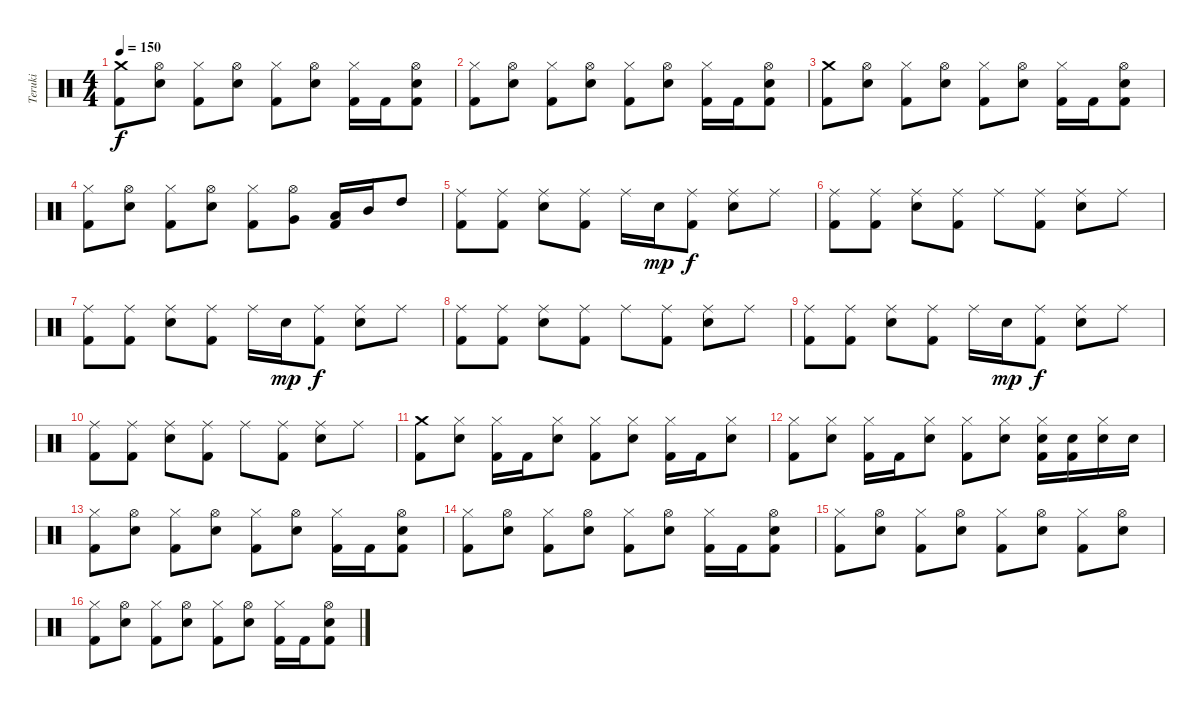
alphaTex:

\track ("Teruki" "Teruki") {instrument percussion}
\staff {score}
\articulation defaults
\ts (4 4)
\tempo 150
\clef neutral
\ks c
("Crash medium (hit)" "Kick (hit) 2").8{dy f} ("Hi-Hat (open)" "Electric Snare (hit)").8 ("Hi-Hat (closed)" "Kick (hit) 2").8 ("Hi-Hat (open)" "Electric Snare (hit)").8 ("Hi-Hat (closed)" "Kick (hit) 2").8 ("Hi-Hat (open)" "Electric Snare (hit)").8 ("Hi-Hat (closed)" "Kick (hit) 2").16 "Kick (hit) 2".16 ("Hi-Hat (open)" "Electric Snare (hit)" "Kick (hit) 2").8 |
("Hi-Hat (closed)" "Kick (hit) 2").8 ("Hi-Hat (open)" "Electric Snare (hit)").8 ("Hi-Hat (closed)" "Kick (hit) 2").8 ("Hi-Hat (open)" "Electric Snare (hit)").8 ("Hi-Hat (closed)" "Kick (hit) 2").8 ("Hi-Hat (open)" "Electric Snare (hit)").8 ("Hi-Hat (closed)" "Kick (hit) 2").16 "Kick (hit) 2".16 ("Hi-Hat (open)" "Electric Snare (hit)" "Kick (hit) 2").8 |
("Crash medium (hit)" "Kick (hit) 2").8 ("Hi-Hat (open)" "Electric Snare (hit)").8 ("Hi-Hat (closed)" "Kick (hit) 2").8 ("Hi-Hat (open)" "Electric Snare (hit)").8 ("Hi-Hat (closed)" "Kick (hit) 2").8 ("Hi-Hat (open)" "Electric Snare (hit)").8 ("Hi-Hat (closed)" "Kick (hit) 2").16 "Kick (hit) 2".16 ("Hi-Hat (open)" "Electric Snare (hit)" "Kick (hit) 2").8 |
("Hi-Hat (closed)" "Kick (hit) 2").8 ("Hi-Hat (open)" "Electric Snare (hit)").8 ("Hi-Hat (closed)" "Kick (hit) 2").8 ("Hi-Hat (open)" "Electric Snare (hit)").8 ("Hi-Hat (closed)" "Kick (hit) 2").8 ("Hi-Hat (open)" "Very Low Tom (hit)").8 ("Low Tom (hit)" "Kick (hit) 2").16 "Mid Tom (hit)".16 "High Tom (hit)".8 |
("Ride (middle)" "Kick (hit) 2").8 ("Ride (middle)" "Kick (hit) 2").8 ("Ride (middle)" "Electric Snare (hit)").8 ("Ride (middle)" "Kick (hit) 2").8 "Ride (middle)".16 "Electric Snare (hit)".16{dy mp} ("Ride (middle)" "Kick (hit) 2").8{dy f} ("Ride (middle)" "Electric Snare (hit)").8 "Ride (middle)".8 |
("Ride (middle)" "Kick (hit) 2").8 ("Ride (middle)" "Kick (hit) 2").8 ("Ride (middle)" "Electric Snare (hit)").8 ("Ride (middle)" "Kick (hit) 2").8 "Ride (middle)".8 ("Ride (middle)" "Kick (hit) 2").8 ("Ride (middle)" "Electric Snare (hit)").8 "Ride (middle)".8 |
("Ride (middle)" "Kick (hit) 2").8 ("Ride (middle)" "Kick (hit) 2").8 ("Ride (middle)" "Electric Snare (hit)").8 ("Ride (middle)" "Kick (hit) 2").8 "Ride (middle)".16 "Electric Snare (hit)".16{dy mp} ("Ride (middle)" "Kick (hit) 2").8{dy f} ("Ride (middle)" "Electric Snare (hit)").8 "Ride (middle)".8 |
("Ride (middle)" "Kick (hit) 2").8 ("Ride (middle)" "Kick (hit) 2").8 ("Ride (middle)" "Electric Snare (hit)").8 ("Ride (middle)" "Kick (hit) 2").8 "Ride (middle)".8 ("Ride (middle)" "Kick (hit) 2").8 ("Ride (middle)" "Electric Snare (hit)").8 "Ride (middle)".8 |
("Ride (middle)" "Kick (hit) 2").8 ("Ride (middle)" "Kick (hit) 2").8 ("Ride (middle)" "Electric Snare (hit)").8 ("Ride (middle)" "Kick (hit) 2").8 "Ride (middle)".16 "Electric Snare (hit)".16{dy mp} ("Ride (middle)" "Kick (hit) 2").8{dy f} ("Ride (middle)" "Electric Snare (hit)").8 "Ride (middle)".8 |
("Ride (middle)" "Kick (hit) 2").8 ("Ride (middle)" "Kick (hit) 2").8 ("Ride (middle)" "Electric Snare (hit)").8 ("Ride (middle)" "Kick (hit) 2").8 "Ride (middle)".8 ("Ride (middle)" "Kick (hit) 2").8 ("Ride (middle)" "Electric Snare (hit)").8 "Ride (middle)".8 |
("Crash medium (hit)" "Kick (hit) 2").8 ("Hi-Hat (closed)" "Electric Snare (hit)").8 ("Hi-Hat (closed)" "Kick (hit) 2").16 "Kick (hit) 2".16 ("Hi-Hat (closed)" "Electric Snare (hit)").8 ("Hi-Hat (closed)" "Kick (hit) 2").8 ("Hi-Hat (closed)" "Electric Snare (hit)").8 ("Hi-Hat (closed)" "Kick (hit) 2").16 "Kick (hit) 2".16 ("Hi-Hat (closed)" "Electric Snare (hit)").8 |
("Hi-Hat (closed)" "Kick (hit) 2").8 ("Hi-Hat (closed)" "Electric Snare (hit)").8 ("Hi-Hat (closed)" "Kick (hit) 2").16 "Kick (hit) 2".16 ("Hi-Hat (closed)" "Electric Snare (hit)").8 ("Hi-Hat (closed)" "Kick (hit) 2").8 ("Hi-Hat (closed)" "Electric Snare (hit)").8 ("Hi-Hat (closed)" "Electric Snare (hit)" "Kick (hit) 2").16 ("Electric Snare (hit)" "Kick (hit) 2").16 ("Hi-Hat (closed)" "Electric Snare (hit)").16 "Electric Snare (hit)".16 |
("Hi-Hat (closed)" "Kick (hit) 2").8 ("Hi-Hat (open)" "Electric Snare (hit)").8 ("Hi-Hat (closed)" "Kick (hit) 2").8 ("Hi-Hat (open)" "Electric Snare (hit)").8 ("Hi-Hat (closed)" "Kick (hit) 2").8 ("Hi-Hat (open)" "Electric Snare (hit)").8 ("Hi-Hat (closed)" "Kick (hit) 2").16 "Kick (hit) 2".16 ("Hi-Hat (open)" "Electric Snare (hit)" "Kick (hit) 2").8 |
("Hi-Hat (closed)" "Kick (hit) 2").8 ("Hi-Hat (open)" "Electric Snare (hit)").8 ("Hi-Hat (closed)" "Kick (hit) 2").8 ("Hi-Hat (open)" "Electric Snare (hit)").8 ("Hi-Hat (closed)" "Kick (hit) 2").8 ("Hi-Hat (open)" "Electric Snare (hit)").8 ("Hi-Hat (closed)" "Kick (hit) 2").16 "Kick (hit) 2".16 ("Hi-Hat (open)" "Electric Snare (hit)" "Kick (hit) 2").8 |
("Hi-Hat (closed)" "Kick (hit) 2").8 ("Hi-Hat (open)" "Electric Snare (hit)").8 ("Hi-Hat (closed)" "Kick (hit) 2").8 ("Hi-Hat (open)" "Electric Snare (hit)").8 ("Hi-Hat (closed)" "Kick (hit) 2").8 ("Hi-Hat (open)" "Electric Snare (hit)").8 ("Hi-Hat (closed)" "Kick (hit) 2").8 ("Hi-Hat (open)" "Electric Snare (hit)").8 |
("Hi-Hat (closed)" "Kick (hit) 2").8 ("Hi-Hat (open)" "Electric Snare (hit)").8 ("Hi-Hat (closed)" "Kick (hit) 2").8 ("Hi-Hat (open)" "Electric Snare (hit)").8 ("Hi-Hat (closed)" "Kick (hit) 2").8 ("Hi-Hat (open)" "Electric Snare (hit)").8 ("Hi-Hat (closed)" "Kick (hit) 2").16 "Kick (hit) 2".16 ("Hi-Hat (open)" "Electric Snare (hit)" "Kick (hit) 2").8
